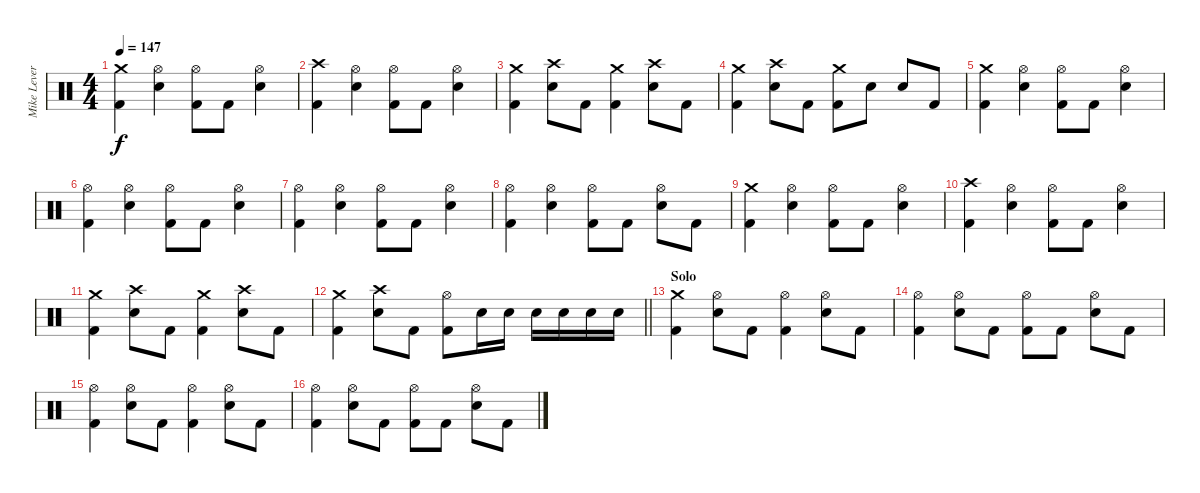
\track ("Mike Leverence - Drums" "Mike Lever") {instrument percussion}
\staff {score}
\articulation defaults
\ts (4 4)
\tempo 147
\clef neutral
\ks c
("Crash medium (hit)" "Kick (hit) 2").4{dy f} ("Hi-Hat (open)" "Electric Snare (hit)").4 ("Hi-Hat (open)" "Kick (hit) 2").8 "Kick (hit) 2".8 ("Hi-Hat (open)" "Electric Snare (hit)").4 |
("Crash high (hit)" "Kick (hit) 2").4 ("Hi-Hat (open)" "Electric Snare (hit)").4 ("Hi-Hat (open)" "Kick (hit) 2").8 "Kick (hit) 2".8 ("Hi-Hat (open)" "Electric Snare (hit)").4 |
("Crash medium (hit)" "Kick (hit) 2").4 ("Crash high (hit)" "Electric Snare (hit)").8 "Kick (hit) 2".8 ("Crash medium (hit)" "Kick (hit) 2").4 ("Crash high (hit)" "Electric Snare (hit)").8 "Kick (hit) 2".8 |
("Crash medium (hit)" "Kick (hit) 2").4 ("Crash high (hit)" "Electric Snare (hit)").8 "Kick (hit) 2".8 ("Crash medium (hit)" "Kick (hit) 2").8 "Electric Snare (hit)".8 "Electric Snare (hit)".8 "Kick (hit) 2".8 |
("Crash medium (hit)" "Kick (hit) 2").4 ("Hi-Hat (open)" "Electric Snare (hit)").4 ("Hi-Hat (open)" "Kick (hit) 2").8 "Kick (hit) 2".8 ("Hi-Hat (open)" "Electric Snare (hit)").4 |
("Hi-Hat (open)" "Kick (hit) 2").4 ("Hi-Hat (open)" "Electric Snare (hit)").4 ("Hi-Hat (open)" "Kick (hit) 2").8 "Kick (hit) 2".8 ("Hi-Hat (open)" "Electric Snare (hit)").4 |
("Hi-Hat (open)" "Kick (hit) 2").4 ("Hi-Hat (open)" "Electric Snare (hit)").4 ("Hi-Hat (open)" "Kick (hit) 2").8 "Kick (hit) 2".8 ("Hi-Hat (open)" "Electric Snare (hit)").4 |
("Hi-Hat (open)" "Kick (hit) 2").4 ("Hi-Hat (open)" "Electric Snare (hit)").4 ("Hi-Hat (open)" "Kick (hit) 2").8 "Kick (hit) 2".8 ("Hi-Hat (open)" "Electric Snare (hit)").8 "Kick (hit) 2".8 |
("Crash medium (hit)" "Kick (hit) 2").4 ("Hi-Hat (open)" "Electric Snare (hit)").4 ("Hi-Hat (open)" "Kick (hit) 2").8 "Kick (hit) 2".8 ("Hi-Hat (open)" "Electric Snare (hit)").4 |
("Crash high (hit)" "Kick (hit) 2").4 ("Hi-Hat (open)" "Electric Snare (hit)").4 ("Hi-Hat (open)" "Kick (hit) 2").8 "Kick (hit) 2".8 ("Hi-Hat (open)" "Electric Snare (hit)").4 |
("Crash medium (hit)" "Kick (hit) 2").4 ("Crash high (hit)" "Electric Snare (hit)").8 "Kick (hit) 2".8 ("Crash medium (hit)" "Kick (hit) 2").4 ("Crash high (hit)" "Electric Snare (hit)").8 "Kick (hit) 2".8 |
\barLineRight lightlight
("Crash medium (hit)" "Kick (hit) 2").4 ("Crash high (hit)" "Electric Snare (hit)").8 "Kick (hit) 2".8 ("Hi-Hat (open)" "Kick (hit) 2").8 "Electric Snare (hit)".16 "Electric Snare (hit)".16 "Electric Snare (hit)".16 "Electric Snare (hit)".16 "Electric Snare (hit)".16 "Electric Snare (hit)".16 |
\section ("" "Solo")
("Crash medium (hit)" "Kick (hit) 2").4 ("Hi-Hat (open)" "Electric Snare (hit)").8 "Kick (hit) 2".8 ("Hi-Hat (open)" "Kick (hit) 2").4 ("Hi-Hat (open)" "Electric Snare (hit)").8 "Kick (hit) 2".8 |
("Hi-Hat (open)" "Kick (hit) 2").4 ("Hi-Hat (open)" "Electric Snare (hit)").8 "Kick (hit) 2".8 ("Hi-Hat (open)" "Kick (hit) 2").8 "Kick (hit) 2".8 ("Hi-Hat (open)" "Electric Snare (hit)").8 "Kick (hit) 2".8 |
("Hi-Hat (open)" "Kick (hit) 2").4 ("Hi-Hat (open)" "Electric Snare (hit)").8 "Kick (hit) 2".8 ("Hi-Hat (open)" "Kick (hit) 2").4 ("Hi-Hat (open)" "Electric Snare (hit)").8 "Kick (hit) 2".8 |
("Hi-Hat (open)" "Kick (hit) 2").4 ("Hi-Hat (open)" "Electric Snare (hit)").8 "Kick (hit) 2".8 ("Hi-Hat (open)" "Kick (hit) 2").8 "Kick (hit) 2".8 ("Hi-Hat (open)" "Electric Snare (hit)").8 "Kick (hit) 2".8
